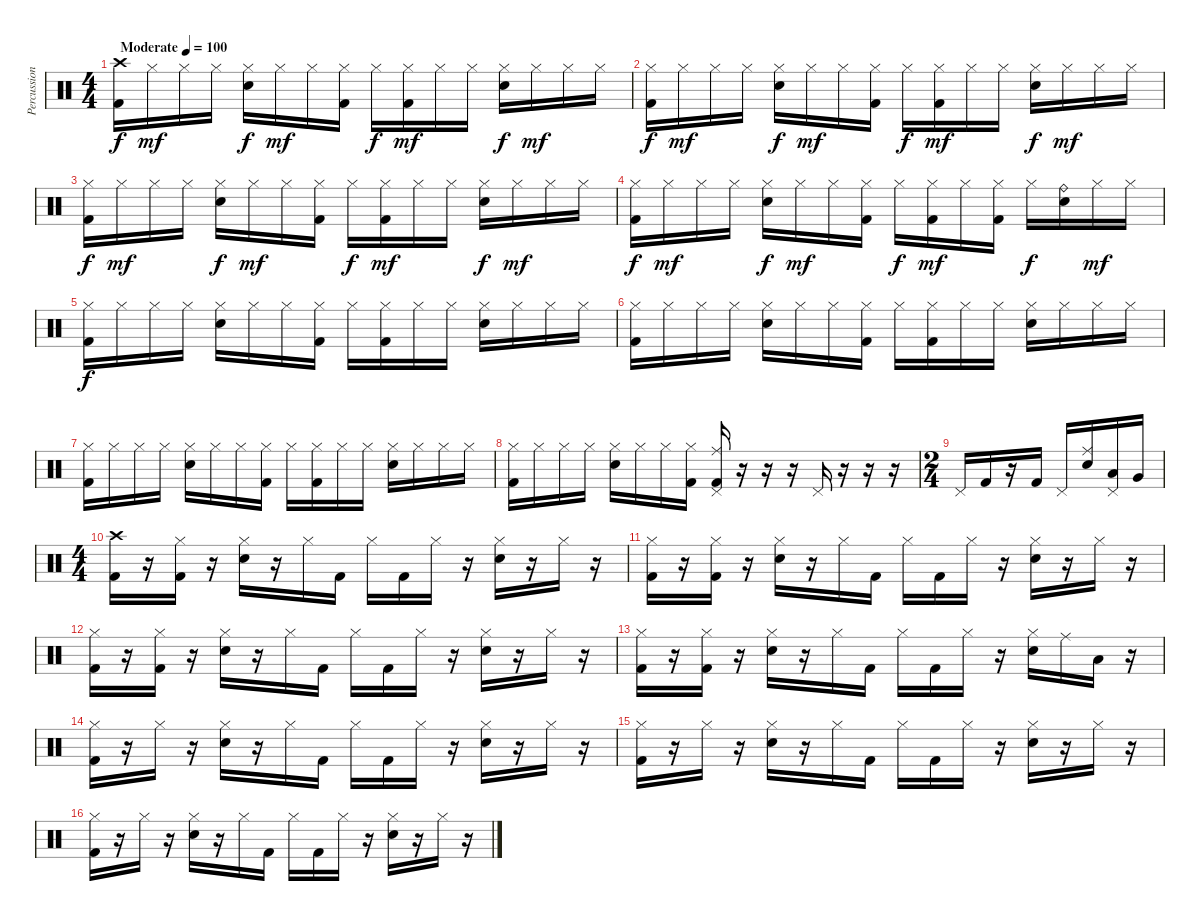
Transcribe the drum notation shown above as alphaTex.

\track ("Percussion" "Percussion") {instrument percussion}
\staff {score}
\articulation defaults
\ts (4 4)
\tempo (100 "Moderate")
\clef neutral
\ks c
("Crash high (hit)" "Kick (hit) 2").16{dy f} "Hi-Hat (closed)".16{dy mf} "Hi-Hat (closed)".16 "Hi-Hat (closed)".16 ("Hi-Hat (closed)" "Electric Snare (hit)").16{dy f} "Hi-Hat (closed)".16{dy mf} "Hi-Hat (closed)".16 ("Hi-Hat (closed)" "Kick (hit) 2").16 "Hi-Hat (closed)".16{dy f} ("Hi-Hat (closed)" "Kick (hit) 2").16{dy mf} "Hi-Hat (closed)".16 "Hi-Hat (closed)".16 ("Hi-Hat (closed)" "Electric Snare (hit)").16{dy f} "Hi-Hat (closed)".16{dy mf} "Hi-Hat (closed)".16 "Hi-Hat (closed)".16 |
("Hi-Hat (closed)" "Kick (hit) 2").16{dy f} "Hi-Hat (closed)".16{dy mf} "Hi-Hat (closed)".16 "Hi-Hat (closed)".16 ("Hi-Hat (closed)" "Electric Snare (hit)").16{dy f} "Hi-Hat (closed)".16{dy mf} "Hi-Hat (closed)".16 ("Hi-Hat (closed)" "Kick (hit) 2").16 "Hi-Hat (closed)".16{dy f} ("Hi-Hat (closed)" "Kick (hit) 2").16{dy mf} "Hi-Hat (closed)".16 "Hi-Hat (closed)".16 ("Hi-Hat (closed)" "Electric Snare (hit)").16{dy f} "Hi-Hat (closed)".16{dy mf} "Hi-Hat (closed)".16 "Hi-Hat (closed)".16 |
("Hi-Hat (closed)" "Kick (hit) 2").16{dy f} "Hi-Hat (closed)".16{dy mf} "Hi-Hat (closed)".16 "Hi-Hat (closed)".16 ("Hi-Hat (closed)" "Electric Snare (hit)").16{dy f} "Hi-Hat (closed)".16{dy mf} "Hi-Hat (closed)".16 ("Hi-Hat (closed)" "Kick (hit) 2").16 "Hi-Hat (closed)".16{dy f} ("Hi-Hat (closed)" "Kick (hit) 2").16{dy mf} "Hi-Hat (closed)".16 "Hi-Hat (closed)".16 ("Hi-Hat (closed)" "Electric Snare (hit)").16{dy f} "Hi-Hat (closed)".16{dy mf} "Hi-Hat (closed)".16 "Hi-Hat (closed)".16 |
("Hi-Hat (closed)" "Kick (hit) 2").16{dy f} "Hi-Hat (closed)".16{dy mf} "Hi-Hat (closed)".16 "Hi-Hat (closed)".16 ("Hi-Hat (closed)" "Electric Snare (hit)").16{dy f} "Hi-Hat (closed)".16{dy mf} "Hi-Hat (closed)".16 ("Hi-Hat (closed)" "Kick (hit) 2").16 "Hi-Hat (closed)".16{dy f} ("Hi-Hat (closed)" "Kick (hit) 2").16{dy mf} "Hi-Hat (closed)".16 ("Hi-Hat (closed)" "Kick (hit) 2").16 "Hi-Hat (closed)".16{dy f} ("Ride (bell)" "Electric Snare (hit)").16 "Hi-Hat (closed)".16{dy mf} "Hi-Hat (closed)".16 |
("Hi-Hat (closed)" "Kick (hit) 2").16{dy f} "Hi-Hat (closed)".16 "Hi-Hat (closed)".16 "Hi-Hat (closed)".16 ("Hi-Hat (closed)" "Electric Snare (hit)").16 "Hi-Hat (closed)".16 "Hi-Hat (closed)".16 ("Hi-Hat (closed)" "Kick (hit) 2").16 "Hi-Hat (closed)".16 ("Hi-Hat (closed)" "Kick (hit) 2").16 "Hi-Hat (closed)".16 "Hi-Hat (closed)".16 ("Hi-Hat (closed)" "Electric Snare (hit)").16 "Hi-Hat (closed)".16 "Hi-Hat (closed)".16 "Hi-Hat (closed)".16 |
("Hi-Hat (closed)" "Kick (hit) 2").16 "Hi-Hat (closed)".16 "Hi-Hat (closed)".16 "Hi-Hat (closed)".16 ("Hi-Hat (closed)" "Electric Snare (hit)").16 "Hi-Hat (closed)".16 "Hi-Hat (closed)".16 ("Hi-Hat (closed)" "Kick (hit) 2").16 "Hi-Hat (closed)".16 ("Hi-Hat (closed)" "Kick (hit) 2").16 "Hi-Hat (closed)".16 "Hi-Hat (closed)".16 ("Hi-Hat (closed)" "Electric Snare (hit)").16 "Hi-Hat (closed)".16 "Hi-Hat (closed)".16 "Hi-Hat (closed)".16 |
("Hi-Hat (closed)" "Kick (hit) 2").16 "Hi-Hat (closed)".16 "Hi-Hat (closed)".16 "Hi-Hat (closed)".16 ("Hi-Hat (closed)" "Electric Snare (hit)").16 "Hi-Hat (closed)".16 "Hi-Hat (closed)".16 ("Hi-Hat (closed)" "Kick (hit) 2").16 "Hi-Hat (closed)".16 ("Hi-Hat (closed)" "Kick (hit) 2").16 "Hi-Hat (closed)".16 "Hi-Hat (closed)".16 ("Hi-Hat (closed)" "Electric Snare (hit)").16 "Hi-Hat (closed)".16 "Hi-Hat (closed)".16 "Hi-Hat (closed)".16 |
("Hi-Hat (closed)" "Kick (hit) 2").16 "Hi-Hat (closed)".16 "Hi-Hat (closed)".16 "Hi-Hat (closed)".16 ("Hi-Hat (closed)" "Electric Snare (hit)").16 "Hi-Hat (closed)".16 "Hi-Hat (closed)".16 ("Hi-Hat (closed)" "Kick (hit) 2").16 ("Ride (middle)" "Pedal Hi-Hat (hit)" "Kick (hit) 2").16 r.16 r.16 r.16 "Pedal Hi-Hat (hit)".16 r.16 r.16 r.16 |
\ts (2 4)
"Pedal Hi-Hat (hit)".16 "Kick (hit) 2".16 r.16 "Kick (hit) 2".16 "Pedal Hi-Hat (hit)".16 ("Ride (middle)" "Electric Snare (hit)").16 ("Low Tom (hit)" "Pedal Hi-Hat (hit)").16 "Very Low Tom (hit)".16 |
\ts (4 4)
("Crash high (hit)" "Kick (hit) 2").16 r.16 ("Hi-Hat (closed)" "Kick (hit) 2").16 r.16 ("Hi-Hat (closed)" "Electric Snare (hit)").16 r.16 "Hi-Hat (closed)".16 "Kick (hit) 2".16 "Hi-Hat (closed)".16 "Kick (hit) 2".16 "Hi-Hat (closed)".16 r.16 ("Hi-Hat (closed)" "Electric Snare (hit)").16 r.16 "Hi-Hat (closed)".16 r.16 |
("Hi-Hat (closed)" "Kick (hit) 2").16 r.16 ("Hi-Hat (closed)" "Kick (hit) 2").16 r.16 ("Hi-Hat (closed)" "Electric Snare (hit)").16 r.16 "Hi-Hat (closed)".16 "Kick (hit) 2".16 "Hi-Hat (closed)".16 "Kick (hit) 2".16 "Hi-Hat (closed)".16 r.16 ("Hi-Hat (closed)" "Electric Snare (hit)").16 r.16 "Hi-Hat (closed)".16 r.16 |
("Hi-Hat (closed)" "Kick (hit) 2").16 r.16 ("Hi-Hat (closed)" "Kick (hit) 2").16 r.16 ("Hi-Hat (closed)" "Electric Snare (hit)").16 r.16 "Hi-Hat (closed)".16 "Kick (hit) 2".16 "Hi-Hat (closed)".16 "Kick (hit) 2".16 "Hi-Hat (closed)".16 r.16 ("Hi-Hat (closed)" "Electric Snare (hit)").16 r.16 "Hi-Hat (closed)".16 r.16 |
("Hi-Hat (closed)" "Kick (hit) 2").16 r.16 ("Hi-Hat (closed)" "Kick (hit) 2").16 r.16 ("Hi-Hat (closed)" "Electric Snare (hit)").16 r.16 "Hi-Hat (closed)".16 "Kick (hit) 2".16 "Hi-Hat (closed)".16 "Kick (hit) 2".16 "Hi-Hat (closed)".16 r.16 ("Hi-Hat (closed)" "Electric Snare (hit)").16 "Ride (middle)".16 "Low Tom (hit)".16 r.16 |
("Hi-Hat (closed)" "Kick (hit) 2").16 r.16 "Hi-Hat (closed)".16 r.16 ("Hi-Hat (closed)" "Electric Snare (hit)").16 r.16 "Hi-Hat (closed)".16 "Kick (hit) 2".16 "Hi-Hat (closed)".16 "Kick (hit) 2".16 "Hi-Hat (closed)".16 r.16 ("Hi-Hat (closed)" "Electric Snare (hit)").16 r.16 "Hi-Hat (closed)".16 r.16 |
("Hi-Hat (closed)" "Kick (hit) 2").16 r.16 "Hi-Hat (closed)".16 r.16 ("Hi-Hat (closed)" "Electric Snare (hit)").16 r.16 "Hi-Hat (closed)".16 "Kick (hit) 2".16 "Hi-Hat (closed)".16 "Kick (hit) 2".16 "Hi-Hat (closed)".16 r.16 ("Hi-Hat (closed)" "Electric Snare (hit)").16 r.16 "Hi-Hat (closed)".16 r.16 |
("Hi-Hat (closed)" "Kick (hit) 2").16 r.16 "Hi-Hat (closed)".16 r.16 ("Hi-Hat (closed)" "Electric Snare (hit)").16 r.16 "Hi-Hat (closed)".16 "Kick (hit) 2".16 "Hi-Hat (closed)".16 "Kick (hit) 2".16 "Hi-Hat (closed)".16 r.16 ("Hi-Hat (closed)" "Electric Snare (hit)").16 r.16 "Hi-Hat (closed)".16 r.16
